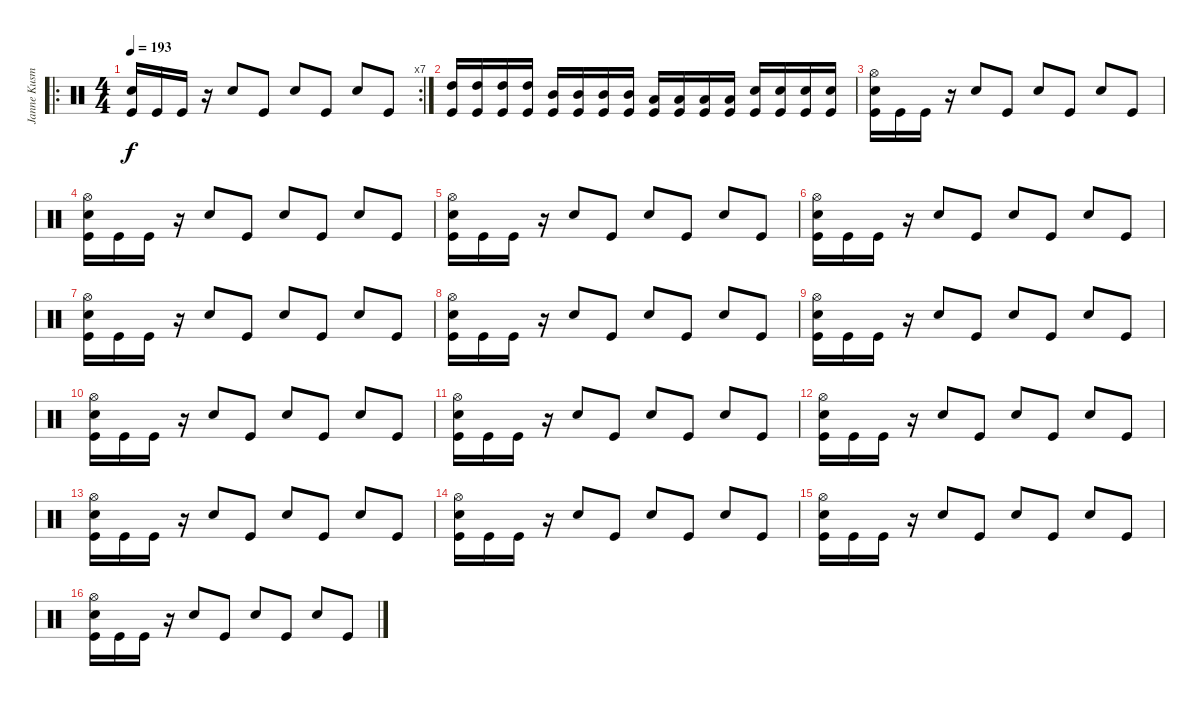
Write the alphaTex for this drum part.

\track ("Janne Kusmin " "Janne Kusm") {instrument percussion}
\staff {score}
\articulation defaults
\ro
\rc 7
\ts (4 4)
\tempo 193
\clef neutral
\ks c
("Snare (hit) 2" "Kick (hit)").16{dy f} "Kick (hit)".16 "Kick (hit)".16 r.16 "Snare (hit) 2".8 "Kick (hit)".8 "Snare (hit) 2".8 "Kick (hit)".8 "Snare (hit) 2".8 "Kick (hit)".8 |
("High Tom (hit)" "Kick (hit)").16 ("High Tom (hit)" "Kick (hit)").16 ("High Tom (hit)" "Kick (hit)").16 ("High Tom (hit)" "Kick (hit)").16 ("Mid Tom (hit)" "Kick (hit)").16 ("Mid Tom (hit)" "Kick (hit)").16 ("Mid Tom (hit)" "Kick (hit)").16 ("Mid Tom (hit)" "Kick (hit)").16 ("Low Tom (hit)" "Kick (hit)").16 ("Low Tom (hit)" "Kick (hit)").16 ("Low Tom (hit)" "Kick (hit)").16 ("Low Tom (hit)" "Kick (hit)").16 ("Snare (hit) 2" "Kick (hit)").16 ("Snare (hit) 2" "Kick (hit)").16 ("Snare (hit) 2" "Kick (hit)").16 ("Snare (hit) 2" "Kick (hit)").16 |
("Hi-Hat (open)" "Snare (hit) 2" "Kick (hit)").16 "Kick (hit)".16 "Kick (hit)".16 r.16 "Snare (hit) 2".8 "Kick (hit)".8 "Snare (hit) 2".8 "Kick (hit)".8 "Snare (hit) 2".8 "Kick (hit)".8 |
("Hi-Hat (open)" "Snare (hit) 2" "Kick (hit)").16 "Kick (hit)".16 "Kick (hit)".16 r.16 "Snare (hit) 2".8 "Kick (hit)".8 "Snare (hit) 2".8 "Kick (hit)".8 "Snare (hit) 2".8 "Kick (hit)".8 |
("Hi-Hat (open)" "Snare (hit) 2" "Kick (hit)").16 "Kick (hit)".16 "Kick (hit)".16 r.16 "Snare (hit) 2".8 "Kick (hit)".8 "Snare (hit) 2".8 "Kick (hit)".8 "Snare (hit) 2".8 "Kick (hit)".8 |
("Hi-Hat (open)" "Snare (hit) 2" "Kick (hit)").16 "Kick (hit)".16 "Kick (hit)".16 r.16 "Snare (hit) 2".8 "Kick (hit)".8 "Snare (hit) 2".8 "Kick (hit)".8 "Snare (hit) 2".8 "Kick (hit)".8 |
("Hi-Hat (open)" "Snare (hit) 2" "Kick (hit)").16 "Kick (hit)".16 "Kick (hit)".16 r.16 "Snare (hit) 2".8 "Kick (hit)".8 "Snare (hit) 2".8 "Kick (hit)".8 "Snare (hit) 2".8 "Kick (hit)".8 |
("Hi-Hat (open)" "Snare (hit) 2" "Kick (hit)").16 "Kick (hit)".16 "Kick (hit)".16 r.16 "Snare (hit) 2".8 "Kick (hit)".8 "Snare (hit) 2".8 "Kick (hit)".8 "Snare (hit) 2".8 "Kick (hit)".8 |
("Hi-Hat (open)" "Snare (hit) 2" "Kick (hit)").16 "Kick (hit)".16 "Kick (hit)".16 r.16 "Snare (hit) 2".8 "Kick (hit)".8 "Snare (hit) 2".8 "Kick (hit)".8 "Snare (hit) 2".8 "Kick (hit)".8 |
("Hi-Hat (open)" "Snare (hit) 2" "Kick (hit)").16 "Kick (hit)".16 "Kick (hit)".16 r.16 "Snare (hit) 2".8 "Kick (hit)".8 "Snare (hit) 2".8 "Kick (hit)".8 "Snare (hit) 2".8 "Kick (hit)".8 |
("Hi-Hat (open)" "Snare (hit) 2" "Kick (hit)").16 "Kick (hit)".16 "Kick (hit)".16 r.16 "Snare (hit) 2".8 "Kick (hit)".8 "Snare (hit) 2".8 "Kick (hit)".8 "Snare (hit) 2".8 "Kick (hit)".8 |
("Hi-Hat (open)" "Snare (hit) 2" "Kick (hit)").16 "Kick (hit)".16 "Kick (hit)".16 r.16 "Snare (hit) 2".8 "Kick (hit)".8 "Snare (hit) 2".8 "Kick (hit)".8 "Snare (hit) 2".8 "Kick (hit)".8 |
("Hi-Hat (open)" "Snare (hit) 2" "Kick (hit)").16 "Kick (hit)".16 "Kick (hit)".16 r.16 "Snare (hit) 2".8 "Kick (hit)".8 "Snare (hit) 2".8 "Kick (hit)".8 "Snare (hit) 2".8 "Kick (hit)".8 |
("Hi-Hat (open)" "Snare (hit) 2" "Kick (hit)").16 "Kick (hit)".16 "Kick (hit)".16 r.16 "Snare (hit) 2".8 "Kick (hit)".8 "Snare (hit) 2".8 "Kick (hit)".8 "Snare (hit) 2".8 "Kick (hit)".8 |
("Hi-Hat (open)" "Snare (hit) 2" "Kick (hit)").16 "Kick (hit)".16 "Kick (hit)".16 r.16 "Snare (hit) 2".8 "Kick (hit)".8 "Snare (hit) 2".8 "Kick (hit)".8 "Snare (hit) 2".8 "Kick (hit)".8 |
("Hi-Hat (open)" "Snare (hit) 2" "Kick (hit)").16 "Kick (hit)".16 "Kick (hit)".16 r.16 "Snare (hit) 2".8 "Kick (hit)".8 "Snare (hit) 2".8 "Kick (hit)".8 "Snare (hit) 2".8 "Kick (hit)".8
